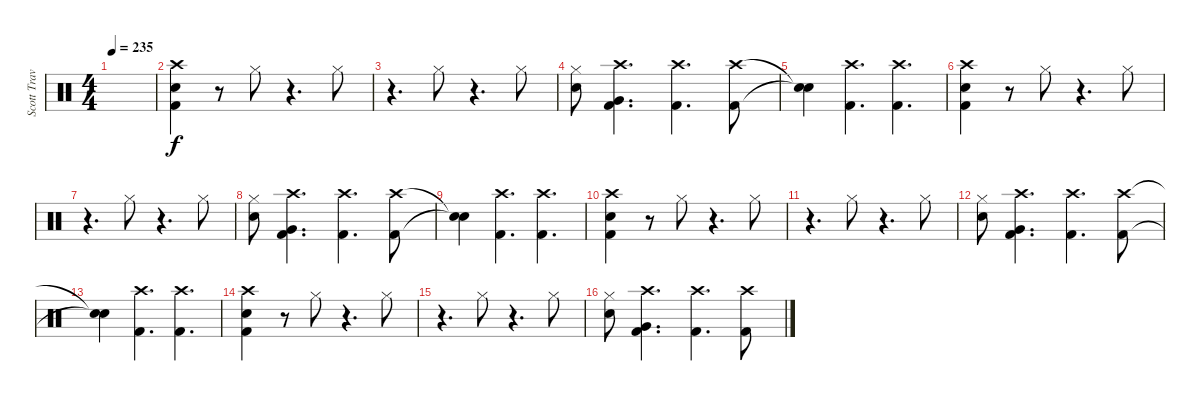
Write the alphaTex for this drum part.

\track ("Scott Travis" "Scott Trav") {instrument percussion}
\staff {score}
\articulation defaults
\ts (4 4)
\tempo 235
\clef neutral
\ks c
|
("Crash high (hit)" "Kick (hit) 2" "Snare (hit) 2").4 r.8 "Hi-Hat (closed)".8 r.4{d} "Hi-Hat (closed)".8 |
r.4{d} "Hi-Hat (closed)".8 r.4{d} "Hi-Hat (closed)".8 |
("Hi-Hat (closed)" "Snare (hit) 2").8 ("Kick (hit) 2" "Crash high (hit)" "Very Low Tom (hit)").4{d} ("Kick (hit) 2" "Crash high (hit)").4{d} ("Kick (hit) 2" "Crash high (hit)").8 |
("Snare (hit)"{t} "Snare (hit)"{t}).4 ("Kick (hit) 2" "Crash high (hit)").4{d} ("Kick (hit) 2" "Crash high (hit)").4{d} |
("Crash high (hit)" "Kick (hit) 2" "Snare (hit) 2").4 r.8 "Hi-Hat (closed)".8 r.4{d} "Hi-Hat (closed)".8 |
r.4{d} "Hi-Hat (closed)".8 r.4{d} "Hi-Hat (closed)".8 |
("Hi-Hat (closed)" "Snare (hit) 2").8 ("Kick (hit) 2" "Crash high (hit)" "Very Low Tom (hit)").4{d} ("Kick (hit) 2" "Crash high (hit)").4{d} ("Kick (hit) 2" "Crash high (hit)").8 |
("Snare (hit)"{t} "Snare (hit)"{t}).4 ("Kick (hit) 2" "Crash high (hit)").4{d} ("Kick (hit) 2" "Crash high (hit)").4{d} |
("Crash high (hit)" "Kick (hit) 2" "Snare (hit) 2").4 r.8 "Hi-Hat (closed)".8 r.4{d} "Hi-Hat (closed)".8 |
r.4{d} "Hi-Hat (closed)".8 r.4{d} "Hi-Hat (closed)".8 |
("Hi-Hat (closed)" "Snare (hit) 2").8 ("Kick (hit) 2" "Crash high (hit)" "Very Low Tom (hit)").4{d} ("Kick (hit) 2" "Crash high (hit)").4{d} ("Kick (hit) 2" "Crash high (hit)").8 |
("Snare (hit)"{t} "Snare (hit)"{t}).4 ("Kick (hit) 2" "Crash high (hit)").4{d} ("Kick (hit) 2" "Crash high (hit)").4{d} |
("Crash high (hit)" "Kick (hit) 2" "Snare (hit) 2").4 r.8 "Hi-Hat (closed)".8 r.4{d} "Hi-Hat (closed)".8 |
r.4{d} "Hi-Hat (closed)".8 r.4{d} "Hi-Hat (closed)".8 |
("Hi-Hat (closed)" "Snare (hit) 2").8 ("Kick (hit) 2" "Crash high (hit)" "Very Low Tom (hit)").4{d} ("Kick (hit) 2" "Crash high (hit)").4{d} ("Kick (hit) 2" "Crash high (hit)").8
